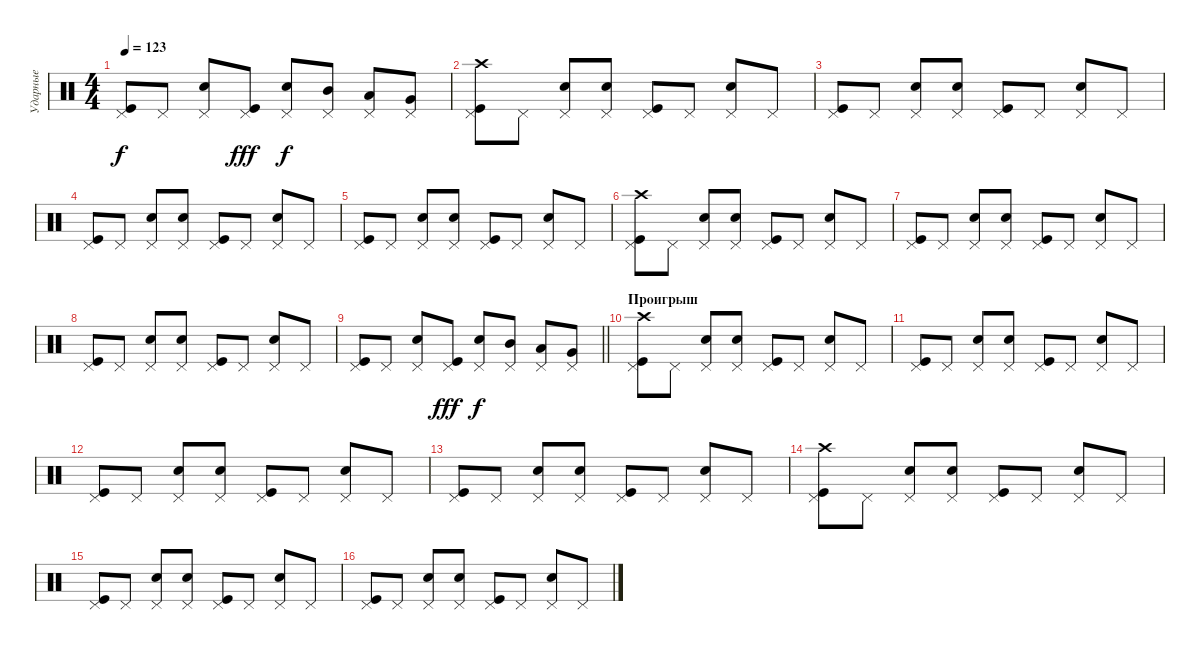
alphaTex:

\track ("Ударные" "Ударные") {instrument percussion}
\staff {score}
\articulation defaults
\ts (4 4)
\tempo 123
\clef neutral
\ks c
("Kick (hit)" "Pedal Hi-Hat (hit)").8{dy f} "Pedal Hi-Hat (hit)".8 ("Pedal Hi-Hat (hit)" "Snare (hit) 2").8 ("Kick (hit)" "Pedal Hi-Hat (hit)").8{dy fff} ("Pedal Hi-Hat (hit)" "Snare (hit) 2").8{dy f} ("Pedal Hi-Hat (hit)" "Mid Tom (hit)").8 ("Pedal Hi-Hat (hit)" "Low Tom (hit)").8 ("Pedal Hi-Hat (hit)" "Very Low Tom (hit)").8 |
("Kick (hit)" "Pedal Hi-Hat (hit)" "Crash high (hit)").8 "Pedal Hi-Hat (hit)".8 ("Pedal Hi-Hat (hit)" "Snare (hit) 2").8 ("Pedal Hi-Hat (hit)" "Snare (hit) 2").8 ("Kick (hit)" "Pedal Hi-Hat (hit)").8 "Pedal Hi-Hat (hit)".8 ("Pedal Hi-Hat (hit)" "Snare (hit) 2").8 "Pedal Hi-Hat (hit)".8 |
("Kick (hit)" "Pedal Hi-Hat (hit)").8 "Pedal Hi-Hat (hit)".8 ("Pedal Hi-Hat (hit)" "Snare (hit) 2").8 ("Pedal Hi-Hat (hit)" "Snare (hit) 2").8 ("Kick (hit)" "Pedal Hi-Hat (hit)").8 "Pedal Hi-Hat (hit)".8 ("Pedal Hi-Hat (hit)" "Snare (hit) 2").8 "Pedal Hi-Hat (hit)".8 |
("Kick (hit)" "Pedal Hi-Hat (hit)").8 "Pedal Hi-Hat (hit)".8 ("Pedal Hi-Hat (hit)" "Snare (hit) 2").8 ("Pedal Hi-Hat (hit)" "Snare (hit) 2").8 ("Kick (hit)" "Pedal Hi-Hat (hit)").8 "Pedal Hi-Hat (hit)".8 ("Pedal Hi-Hat (hit)" "Snare (hit) 2").8 "Pedal Hi-Hat (hit)".8 |
("Kick (hit)" "Pedal Hi-Hat (hit)").8 "Pedal Hi-Hat (hit)".8 ("Pedal Hi-Hat (hit)" "Snare (hit) 2").8 ("Pedal Hi-Hat (hit)" "Snare (hit) 2").8 ("Kick (hit)" "Pedal Hi-Hat (hit)").8 "Pedal Hi-Hat (hit)".8 ("Pedal Hi-Hat (hit)" "Snare (hit) 2").8 "Pedal Hi-Hat (hit)".8 |
("Kick (hit)" "Pedal Hi-Hat (hit)" "Crash high (hit)").8 "Pedal Hi-Hat (hit)".8 ("Pedal Hi-Hat (hit)" "Snare (hit) 2").8 ("Pedal Hi-Hat (hit)" "Snare (hit) 2").8 ("Kick (hit)" "Pedal Hi-Hat (hit)").8 "Pedal Hi-Hat (hit)".8 ("Pedal Hi-Hat (hit)" "Snare (hit) 2").8 "Pedal Hi-Hat (hit)".8 |
("Kick (hit)" "Pedal Hi-Hat (hit)").8 "Pedal Hi-Hat (hit)".8 ("Pedal Hi-Hat (hit)" "Snare (hit) 2").8 ("Pedal Hi-Hat (hit)" "Snare (hit) 2").8 ("Kick (hit)" "Pedal Hi-Hat (hit)").8 "Pedal Hi-Hat (hit)".8 ("Pedal Hi-Hat (hit)" "Snare (hit) 2").8 "Pedal Hi-Hat (hit)".8 |
("Kick (hit)" "Pedal Hi-Hat (hit)").8 "Pedal Hi-Hat (hit)".8 ("Pedal Hi-Hat (hit)" "Snare (hit) 2").8 ("Pedal Hi-Hat (hit)" "Snare (hit) 2").8 ("Kick (hit)" "Pedal Hi-Hat (hit)").8 "Pedal Hi-Hat (hit)".8 ("Pedal Hi-Hat (hit)" "Snare (hit) 2").8 "Pedal Hi-Hat (hit)".8 |
\barLineRight lightlight
("Kick (hit)" "Pedal Hi-Hat (hit)").8 "Pedal Hi-Hat (hit)".8 ("Pedal Hi-Hat (hit)" "Snare (hit) 2").8 ("Kick (hit)" "Pedal Hi-Hat (hit)").8{dy fff} ("Pedal Hi-Hat (hit)" "Snare (hit) 2").8{dy f} ("Pedal Hi-Hat (hit)" "Mid Tom (hit)").8 ("Pedal Hi-Hat (hit)" "Low Tom (hit)").8 ("Pedal Hi-Hat (hit)" "Very Low Tom (hit)").8 |
\section ("" "Проигрыш")
("Kick (hit)" "Pedal Hi-Hat (hit)" "Crash high (hit)").8 "Pedal Hi-Hat (hit)".8 ("Pedal Hi-Hat (hit)" "Snare (hit) 2").8 ("Pedal Hi-Hat (hit)" "Snare (hit) 2").8 ("Kick (hit)" "Pedal Hi-Hat (hit)").8 "Pedal Hi-Hat (hit)".8 ("Pedal Hi-Hat (hit)" "Snare (hit) 2").8 "Pedal Hi-Hat (hit)".8 |
("Kick (hit)" "Pedal Hi-Hat (hit)").8 "Pedal Hi-Hat (hit)".8 ("Pedal Hi-Hat (hit)" "Snare (hit) 2").8 ("Pedal Hi-Hat (hit)" "Snare (hit) 2").8 ("Kick (hit)" "Pedal Hi-Hat (hit)").8 "Pedal Hi-Hat (hit)".8 ("Pedal Hi-Hat (hit)" "Snare (hit) 2").8 "Pedal Hi-Hat (hit)".8 |
("Kick (hit)" "Pedal Hi-Hat (hit)").8 "Pedal Hi-Hat (hit)".8 ("Pedal Hi-Hat (hit)" "Snare (hit) 2").8 ("Pedal Hi-Hat (hit)" "Snare (hit) 2").8 ("Kick (hit)" "Pedal Hi-Hat (hit)").8 "Pedal Hi-Hat (hit)".8 ("Pedal Hi-Hat (hit)" "Snare (hit) 2").8 "Pedal Hi-Hat (hit)".8 |
("Kick (hit)" "Pedal Hi-Hat (hit)").8 "Pedal Hi-Hat (hit)".8 ("Pedal Hi-Hat (hit)" "Snare (hit) 2").8 ("Pedal Hi-Hat (hit)" "Snare (hit) 2").8 ("Kick (hit)" "Pedal Hi-Hat (hit)").8 "Pedal Hi-Hat (hit)".8 ("Pedal Hi-Hat (hit)" "Snare (hit) 2").8 "Pedal Hi-Hat (hit)".8 |
("Kick (hit)" "Pedal Hi-Hat (hit)" "Crash high (hit)").8 "Pedal Hi-Hat (hit)".8 ("Pedal Hi-Hat (hit)" "Snare (hit) 2").8 ("Pedal Hi-Hat (hit)" "Snare (hit) 2").8 ("Kick (hit)" "Pedal Hi-Hat (hit)").8 "Pedal Hi-Hat (hit)".8 ("Pedal Hi-Hat (hit)" "Snare (hit) 2").8 "Pedal Hi-Hat (hit)".8 |
("Kick (hit)" "Pedal Hi-Hat (hit)").8 "Pedal Hi-Hat (hit)".8 ("Pedal Hi-Hat (hit)" "Snare (hit) 2").8 ("Pedal Hi-Hat (hit)" "Snare (hit) 2").8 ("Kick (hit)" "Pedal Hi-Hat (hit)").8 "Pedal Hi-Hat (hit)".8 ("Pedal Hi-Hat (hit)" "Snare (hit) 2").8 "Pedal Hi-Hat (hit)".8 |
("Kick (hit)" "Pedal Hi-Hat (hit)").8 "Pedal Hi-Hat (hit)".8 ("Pedal Hi-Hat (hit)" "Snare (hit) 2").8 ("Pedal Hi-Hat (hit)" "Snare (hit) 2").8 ("Kick (hit)" "Pedal Hi-Hat (hit)").8 "Pedal Hi-Hat (hit)".8 ("Pedal Hi-Hat (hit)" "Snare (hit) 2").8 "Pedal Hi-Hat (hit)".8
